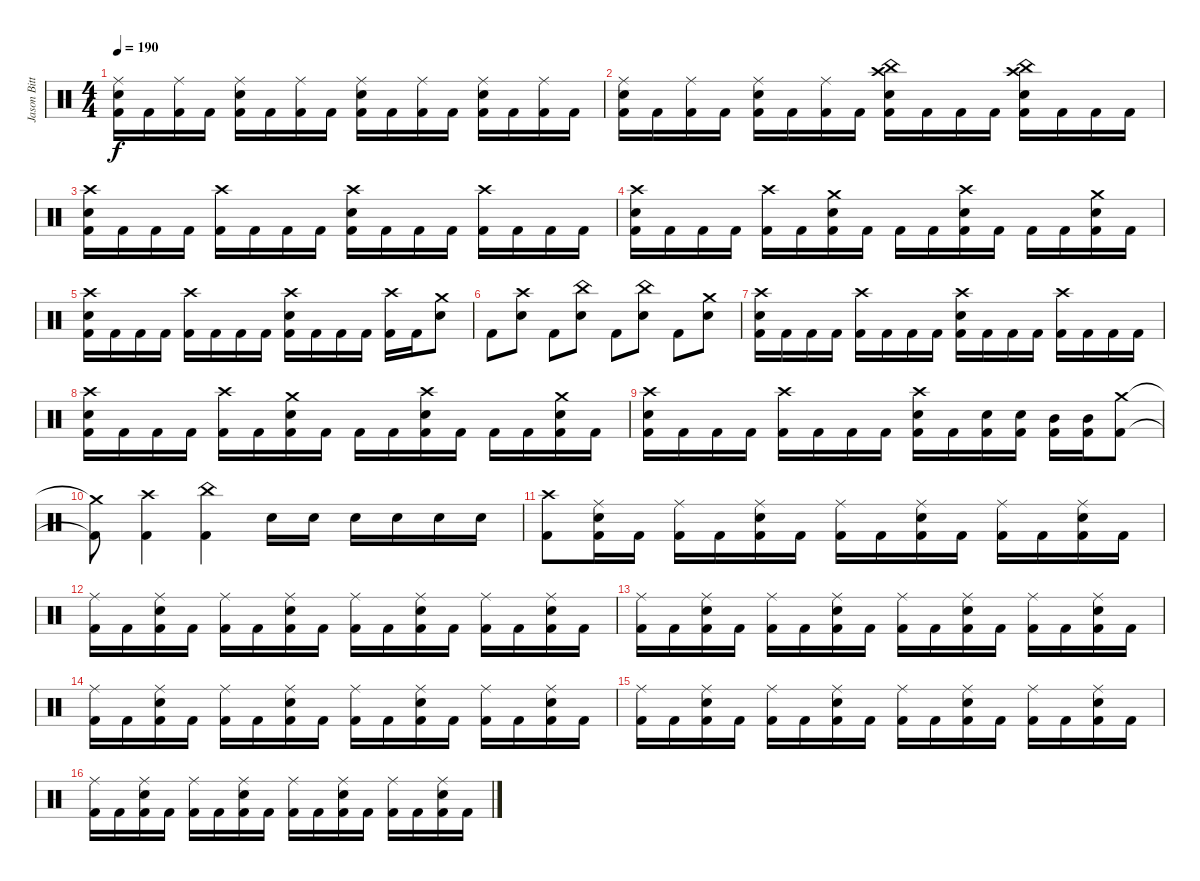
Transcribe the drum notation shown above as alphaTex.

\track ("Jason Bittner" "Jason Bitt") {instrument percussion}
\staff {score}
\articulation defaults
\ts (4 4)
\tempo 190
\clef neutral
\ks c
("Ride (middle)" "Electric Snare (hit)" "Kick (hit) 2").16{dy f} "Kick (hit) 2".16 ("Ride (middle)" "Kick (hit) 2").16 "Kick (hit) 2".16 ("Ride (middle)" "Electric Snare (hit)" "Kick (hit) 2").16 "Kick (hit) 2".16 ("Ride (middle)" "Kick (hit) 2").16 "Kick (hit) 2".16 ("Ride (middle)" "Electric Snare (hit)" "Kick (hit) 2").16 "Kick (hit) 2".16 ("Ride (middle)" "Kick (hit) 2").16 "Kick (hit) 2".16 ("Ride (middle)" "Electric Snare (hit)" "Kick (hit) 2").16 "Kick (hit) 2".16 ("Ride (middle)" "Kick (hit) 2").16 "Kick (hit) 2".16 |
("Ride (middle)" "Electric Snare (hit)" "Kick (hit) 2").16 "Kick (hit) 2".16 ("Ride (middle)" "Kick (hit) 2").16 "Kick (hit) 2".16 ("Ride (middle)" "Electric Snare (hit)" "Kick (hit) 2").16 "Kick (hit) 2".16 ("Ride (middle)" "Kick (hit) 2").16 "Kick (hit) 2".16 ("China (hit)" "Crash high (hit)" "Electric Snare (hit)" "Kick (hit) 2").16 "Kick (hit) 2".16 "Kick (hit) 2".16 "Kick (hit) 2".16 ("China (hit)" "Crash high (hit)" "Electric Snare (hit)" "Kick (hit) 2").16 "Kick (hit) 2".16 "Kick (hit) 2".16 "Kick (hit) 2".16 |
("Crash high (hit)" "Electric Snare (hit)" "Kick (hit) 2").16 "Kick (hit) 2".16 "Kick (hit) 2".16 "Kick (hit) 2".16 ("Crash high (hit)" "Kick (hit) 2").16 "Kick (hit) 2".16 "Kick (hit) 2".16 "Kick (hit) 2".16 ("Crash high (hit)" "Electric Snare (hit)" "Kick (hit) 2").16 "Kick (hit) 2".16 "Kick (hit) 2".16 "Kick (hit) 2".16 ("Crash high (hit)" "Kick (hit) 2").16 "Kick (hit) 2".16 "Kick (hit) 2".16 "Kick (hit) 2".16 |
("Crash high (hit)" "Electric Snare (hit)" "Kick (hit) 2").16 "Kick (hit) 2".16 "Kick (hit) 2".16 "Kick (hit) 2".16 ("Crash high (hit)" "Kick (hit) 2").16 "Kick (hit) 2".16 ("Crash medium (hit)" "Electric Snare (hit)" "Kick (hit) 2").16 "Kick (hit) 2".16 "Kick (hit) 2".16 "Kick (hit) 2".16 ("Crash high (hit)" "Electric Snare (hit)" "Kick (hit) 2").16 "Kick (hit) 2".16 "Kick (hit) 2".16 "Kick (hit) 2".16 ("Crash medium (hit)" "Electric Snare (hit)" "Kick (hit) 2").16 "Kick (hit) 2".16 |
("Crash high (hit)" "Electric Snare (hit)" "Kick (hit) 2").16 "Kick (hit) 2".16 "Kick (hit) 2".16 "Kick (hit) 2".16 ("Crash high (hit)" "Kick (hit) 2").16 "Kick (hit) 2".16 "Kick (hit) 2".16 "Kick (hit) 2".16 ("Crash high (hit)" "Electric Snare (hit)" "Kick (hit) 2").16 "Kick (hit) 2".16 "Kick (hit) 2".16 "Kick (hit) 2".16 ("Crash high (hit)" "Kick (hit) 2").16 "Kick (hit) 2".16 ("Crash medium (hit)" "Electric Snare (hit)").8 |
"Kick (hit) 2".8 ("Crash high (hit)" "Electric Snare (hit)").8 "Kick (hit) 2".8 ("China (hit)" "Electric Snare (hit)").8 "Kick (hit) 2".8 ("China (hit)" "Electric Snare (hit)").8 "Kick (hit) 2".8 ("Crash medium (hit)" "Electric Snare (hit)").8 |
("Crash high (hit)" "Electric Snare (hit)" "Kick (hit) 2").16 "Kick (hit) 2".16 "Kick (hit) 2".16 "Kick (hit) 2".16 ("Crash high (hit)" "Kick (hit) 2").16 "Kick (hit) 2".16 "Kick (hit) 2".16 "Kick (hit) 2".16 ("Crash high (hit)" "Electric Snare (hit)" "Kick (hit) 2").16 "Kick (hit) 2".16 "Kick (hit) 2".16 "Kick (hit) 2".16 ("Crash high (hit)" "Kick (hit) 2").16 "Kick (hit) 2".16 "Kick (hit) 2".16 "Kick (hit) 2".16 |
("Crash high (hit)" "Electric Snare (hit)" "Kick (hit) 2").16 "Kick (hit) 2".16 "Kick (hit) 2".16 "Kick (hit) 2".16 ("Crash high (hit)" "Kick (hit) 2").16 "Kick (hit) 2".16 ("Crash medium (hit)" "Electric Snare (hit)" "Kick (hit) 2").16 "Kick (hit) 2".16 "Kick (hit) 2".16 "Kick (hit) 2".16 ("Crash high (hit)" "Electric Snare (hit)" "Kick (hit) 2").16 "Kick (hit) 2".16 "Kick (hit) 2".16 "Kick (hit) 2".16 ("Crash medium (hit)" "Electric Snare (hit)" "Kick (hit) 2").16 "Kick (hit) 2".16 |
("Crash high (hit)" "Electric Snare (hit)" "Kick (hit) 2").16 "Kick (hit) 2".16 "Kick (hit) 2".16 "Kick (hit) 2".16 ("Crash high (hit)" "Kick (hit) 2").16 "Kick (hit) 2".16 "Kick (hit) 2".16 "Kick (hit) 2".16 ("Crash high (hit)" "Electric Snare (hit)" "Kick (hit) 2").16 "Kick (hit) 2".16 ("Electric Snare (hit)" "Kick (hit) 2").16 ("Electric Snare (hit)" "Kick (hit) 2").16 ("Mid Tom (hit)" "Kick (hit) 2").16 ("Mid Tom (hit)" "Kick (hit) 2").16 ("Crash medium (hit)" "Kick (hit) 2").8 |
("Crash medium (hit)"{t} "Kick (hit) 2"{t}).8 ("Crash high (hit)" "Kick (hit) 2").4 ("China (hit)" "Kick (hit) 2").4 "Electric Snare (hit)".16 "Electric Snare (hit)".16 "Electric Snare (hit)".16 "Electric Snare (hit)".16 "Electric Snare (hit)".16 "Electric Snare (hit)".16 |
("Crash high (hit)" "Kick (hit) 2").8 ("Ride (middle)" "Electric Snare (hit)" "Kick (hit) 2").16 "Kick (hit) 2".16 ("Ride (middle)" "Kick (hit) 2").16 "Kick (hit) 2".16 ("Ride (middle)" "Electric Snare (hit)" "Kick (hit) 2").16 "Kick (hit) 2".16 ("Ride (middle)" "Kick (hit) 2").16 "Kick (hit) 2".16 ("Ride (middle)" "Electric Snare (hit)" "Kick (hit) 2").16 "Kick (hit) 2".16 ("Ride (middle)" "Kick (hit) 2").16 "Kick (hit) 2".16 ("Ride (middle)" "Electric Snare (hit)" "Kick (hit) 2").16 "Kick (hit) 2".16 |
("Ride (middle)" "Kick (hit) 2").16 "Kick (hit) 2".16 ("Ride (middle)" "Electric Snare (hit)" "Kick (hit) 2").16 "Kick (hit) 2".16 ("Ride (middle)" "Kick (hit) 2").16 "Kick (hit) 2".16 ("Ride (middle)" "Electric Snare (hit)" "Kick (hit) 2").16 "Kick (hit) 2".16 ("Ride (middle)" "Kick (hit) 2").16 "Kick (hit) 2".16 ("Ride (middle)" "Electric Snare (hit)" "Kick (hit) 2").16 "Kick (hit) 2".16 ("Ride (middle)" "Kick (hit) 2").16 "Kick (hit) 2".16 ("Ride (middle)" "Electric Snare (hit)" "Kick (hit) 2").16 "Kick (hit) 2".16 |
("Ride (middle)" "Kick (hit) 2").16 "Kick (hit) 2".16 ("Ride (middle)" "Electric Snare (hit)" "Kick (hit) 2").16 "Kick (hit) 2".16 ("Ride (middle)" "Kick (hit) 2").16 "Kick (hit) 2".16 ("Ride (middle)" "Electric Snare (hit)" "Kick (hit) 2").16 "Kick (hit) 2".16 ("Ride (middle)" "Kick (hit) 2").16 "Kick (hit) 2".16 ("Ride (middle)" "Electric Snare (hit)" "Kick (hit) 2").16 "Kick (hit) 2".16 ("Ride (middle)" "Kick (hit) 2").16 "Kick (hit) 2".16 ("Ride (middle)" "Electric Snare (hit)" "Kick (hit) 2").16 "Kick (hit) 2".16 |
("Ride (middle)" "Kick (hit) 2").16 "Kick (hit) 2".16 ("Ride (middle)" "Electric Snare (hit)" "Kick (hit) 2").16 "Kick (hit) 2".16 ("Ride (middle)" "Kick (hit) 2").16 "Kick (hit) 2".16 ("Ride (middle)" "Electric Snare (hit)" "Kick (hit) 2").16 "Kick (hit) 2".16 ("Ride (middle)" "Kick (hit) 2").16 "Kick (hit) 2".16 ("Ride (middle)" "Electric Snare (hit)" "Kick (hit) 2").16 "Kick (hit) 2".16 ("Ride (middle)" "Kick (hit) 2").16 "Kick (hit) 2".16 ("Ride (middle)" "Electric Snare (hit)" "Kick (hit) 2").16 "Kick (hit) 2".16 |
("Ride (middle)" "Kick (hit) 2").16 "Kick (hit) 2".16 ("Ride (middle)" "Electric Snare (hit)" "Kick (hit) 2").16 "Kick (hit) 2".16 ("Ride (middle)" "Kick (hit) 2").16 "Kick (hit) 2".16 ("Ride (middle)" "Electric Snare (hit)" "Kick (hit) 2").16 "Kick (hit) 2".16 ("Ride (middle)" "Kick (hit) 2").16 "Kick (hit) 2".16 ("Ride (middle)" "Electric Snare (hit)" "Kick (hit) 2").16 "Kick (hit) 2".16 ("Ride (middle)" "Kick (hit) 2").16 "Kick (hit) 2".16 ("Ride (middle)" "Electric Snare (hit)" "Kick (hit) 2").16 "Kick (hit) 2".16 |
("Ride (middle)" "Kick (hit) 2").16 "Kick (hit) 2".16 ("Ride (middle)" "Electric Snare (hit)" "Kick (hit) 2").16 "Kick (hit) 2".16 ("Ride (middle)" "Kick (hit) 2").16 "Kick (hit) 2".16 ("Ride (middle)" "Electric Snare (hit)" "Kick (hit) 2").16 "Kick (hit) 2".16 ("Ride (middle)" "Kick (hit) 2").16 "Kick (hit) 2".16 ("Ride (middle)" "Electric Snare (hit)" "Kick (hit) 2").16 "Kick (hit) 2".16 ("Ride (middle)" "Kick (hit) 2").16 "Kick (hit) 2".16 ("Ride (middle)" "Electric Snare (hit)" "Kick (hit) 2").16 "Kick (hit) 2".16
